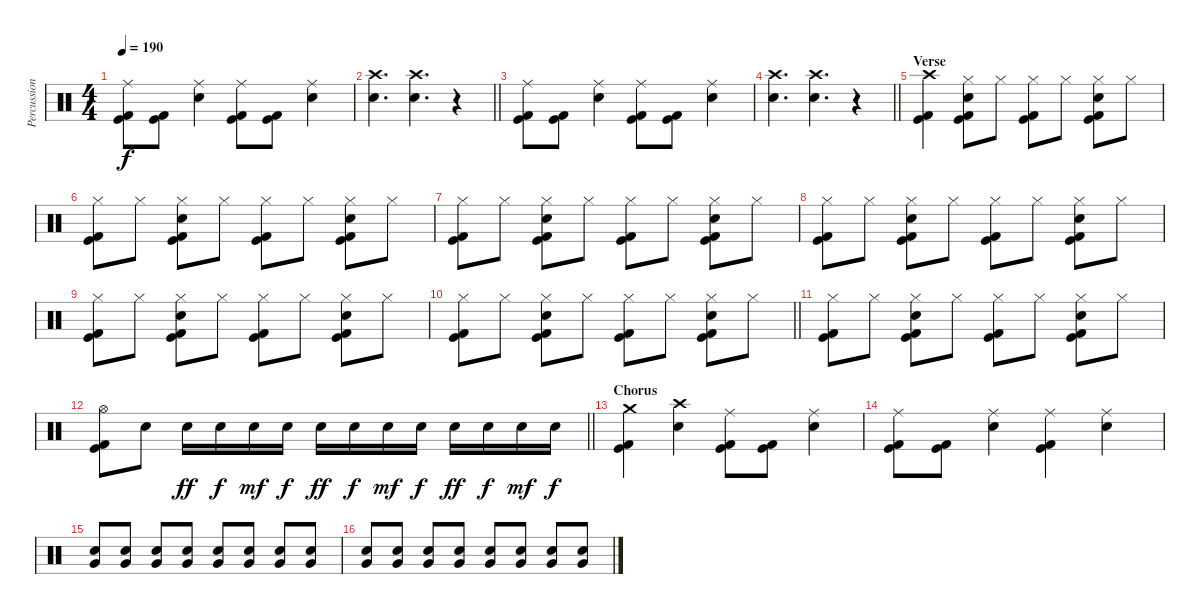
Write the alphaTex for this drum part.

\track ("Percussion" "Percussion") {instrument percussion}
\staff {score}
\articulation defaults
\ts (4 4)
\tempo 190
\clef neutral
\ks c
("Ride (middle)" "Kick (hit)" "Kick (hit) 2").8{dy f} ("Kick (hit)" "Kick (hit) 2").8 ("Ride (middle)" "Electric Snare (hit)").4 ("Ride (middle)" "Kick (hit)" "Kick (hit) 2").8 ("Kick (hit)" "Kick (hit) 2").8 ("Ride (middle)" "Electric Snare (hit)").4 |
\barLineRight lightlight
("Crash high (hit)" "Electric Snare (hit)").4{d} ("Crash high (hit)" "Electric Snare (hit)").4{d} r.4 |
("Ride (middle)" "Kick (hit)" "Kick (hit) 2").8 ("Kick (hit)" "Kick (hit) 2").8 ("Ride (middle)" "Electric Snare (hit)").4 ("Ride (middle)" "Kick (hit)" "Kick (hit) 2").8 ("Kick (hit)" "Kick (hit) 2").8 ("Ride (middle)" "Electric Snare (hit)").4 |
\barLineRight lightlight
("Crash high (hit)" "Electric Snare (hit)").4{d} ("Crash high (hit)" "Electric Snare (hit)").4{d} r.4 |
\section ("" "Verse")
("Crash high (hit)" "Kick (hit)" "Kick (hit) 2").4 ("Hi-Hat (closed)" "Electric Snare (hit)" "Kick (hit)" "Kick (hit) 2").8 "Hi-Hat (closed)".8 ("Hi-Hat (closed)" "Kick (hit)" "Kick (hit) 2").8 "Hi-Hat (closed)".8 ("Hi-Hat (closed)" "Electric Snare (hit)" "Kick (hit)" "Kick (hit) 2").8 "Hi-Hat (closed)".8 |
("Hi-Hat (closed)" "Kick (hit)" "Kick (hit) 2").8 "Hi-Hat (closed)".8 ("Hi-Hat (closed)" "Electric Snare (hit)" "Kick (hit)" "Kick (hit) 2").8 "Hi-Hat (closed)".8 ("Hi-Hat (closed)" "Kick (hit)" "Kick (hit) 2").8 "Hi-Hat (closed)".8 ("Hi-Hat (closed)" "Electric Snare (hit)" "Kick (hit)" "Kick (hit) 2").8 "Hi-Hat (closed)".8 |
("Hi-Hat (closed)" "Kick (hit)" "Kick (hit) 2").8 "Hi-Hat (closed)".8 ("Hi-Hat (closed)" "Electric Snare (hit)" "Kick (hit)" "Kick (hit) 2").8 "Hi-Hat (closed)".8 ("Hi-Hat (closed)" "Kick (hit)" "Kick (hit) 2").8 "Hi-Hat (closed)".8 ("Hi-Hat (closed)" "Electric Snare (hit)" "Kick (hit)" "Kick (hit) 2").8 "Hi-Hat (closed)".8 |
("Hi-Hat (closed)" "Kick (hit)" "Kick (hit) 2").8 "Hi-Hat (closed)".8 ("Hi-Hat (closed)" "Electric Snare (hit)" "Kick (hit)" "Kick (hit) 2").8 "Hi-Hat (closed)".8 ("Hi-Hat (closed)" "Kick (hit)" "Kick (hit) 2").8 "Hi-Hat (closed)".8 ("Hi-Hat (closed)" "Electric Snare (hit)" "Kick (hit)" "Kick (hit) 2").8 "Hi-Hat (closed)".8 |
("Hi-Hat (closed)" "Kick (hit)" "Kick (hit) 2").8 "Hi-Hat (closed)".8 ("Hi-Hat (closed)" "Electric Snare (hit)" "Kick (hit)" "Kick (hit) 2").8 "Hi-Hat (closed)".8 ("Hi-Hat (closed)" "Kick (hit)" "Kick (hit) 2").8 "Hi-Hat (closed)".8 ("Hi-Hat (closed)" "Electric Snare (hit)" "Kick (hit)" "Kick (hit) 2").8 "Hi-Hat (closed)".8 |
\barLineRight lightlight
("Hi-Hat (closed)" "Kick (hit)" "Kick (hit) 2").8 "Hi-Hat (closed)".8 ("Hi-Hat (closed)" "Electric Snare (hit)" "Kick (hit)" "Kick (hit) 2").8 "Hi-Hat (closed)".8 ("Hi-Hat (closed)" "Kick (hit)" "Kick (hit) 2").8 "Hi-Hat (closed)".8 ("Hi-Hat (closed)" "Electric Snare (hit)" "Kick (hit)" "Kick (hit) 2").8 "Hi-Hat (closed)".8 |
("Hi-Hat (closed)" "Kick (hit)" "Kick (hit) 2").8 "Hi-Hat (closed)".8 ("Hi-Hat (closed)" "Electric Snare (hit)" "Kick (hit)" "Kick (hit) 2").8 "Hi-Hat (closed)".8 ("Hi-Hat (closed)" "Kick (hit)" "Kick (hit) 2").8 "Hi-Hat (closed)".8 ("Hi-Hat (closed)" "Electric Snare (hit)" "Kick (hit)" "Kick (hit) 2").8 "Hi-Hat (closed)".8 |
\barLineRight lightlight
("Hi-Hat (open)" "Kick (hit)" "Kick (hit) 2").8 "Electric Snare (hit)".8 "Electric Snare (hit)".16{dy ff} "Electric Snare (hit)".16{dy f} "Electric Snare (hit)".16{dy mf} "Electric Snare (hit)".16{dy f} "Electric Snare (hit)".16{dy ff} "Electric Snare (hit)".16{dy f} "Electric Snare (hit)".16{dy mf} "Electric Snare (hit)".16{dy f} "Electric Snare (hit)".16{dy ff} "Electric Snare (hit)".16{dy f} "Electric Snare (hit)".16{dy mf} "Electric Snare (hit)".16{dy f} |
\section ("" "Chorus")
("Crash medium (hit)" "Kick (hit)" "Kick (hit) 2").4 ("Crash high (hit)" "Electric Snare (hit)").4 ("Ride (middle)" "Kick (hit)" "Kick (hit) 2").8 ("Kick (hit)" "Kick (hit) 2").8 ("Ride (middle)" "Electric Snare (hit)").4 |
("Ride (middle)" "Kick (hit)" "Kick (hit) 2").8 ("Kick (hit)" "Kick (hit) 2").8 ("Ride (middle)" "Electric Snare (hit)").4 ("Ride (middle)" "Kick (hit)" "Kick (hit) 2").4 ("Ride (middle)" "Electric Snare (hit)").4 |
("Very Low Tom (hit)" "Electric Snare (hit)").8 ("Very Low Tom (hit)" "Electric Snare (hit)").8 ("Very Low Tom (hit)" "Electric Snare (hit)").8 ("Very Low Tom (hit)" "Electric Snare (hit)").8 ("Very Low Tom (hit)" "Electric Snare (hit)").8 ("Very Low Tom (hit)" "Electric Snare (hit)").8 ("Very Low Tom (hit)" "Electric Snare (hit)").8 ("Very Low Tom (hit)" "Electric Snare (hit)").8 |
("Very Low Tom (hit)" "Electric Snare (hit)").8 ("Very Low Tom (hit)" "Electric Snare (hit)").8 ("Very Low Tom (hit)" "Electric Snare (hit)").8 ("Very Low Tom (hit)" "Electric Snare (hit)").8 ("Very Low Tom (hit)" "Electric Snare (hit)").8 ("Very Low Tom (hit)" "Electric Snare (hit)").8 ("Very Low Tom (hit)" "Electric Snare (hit)").8 ("Very Low Tom (hit)" "Electric Snare (hit)").8
